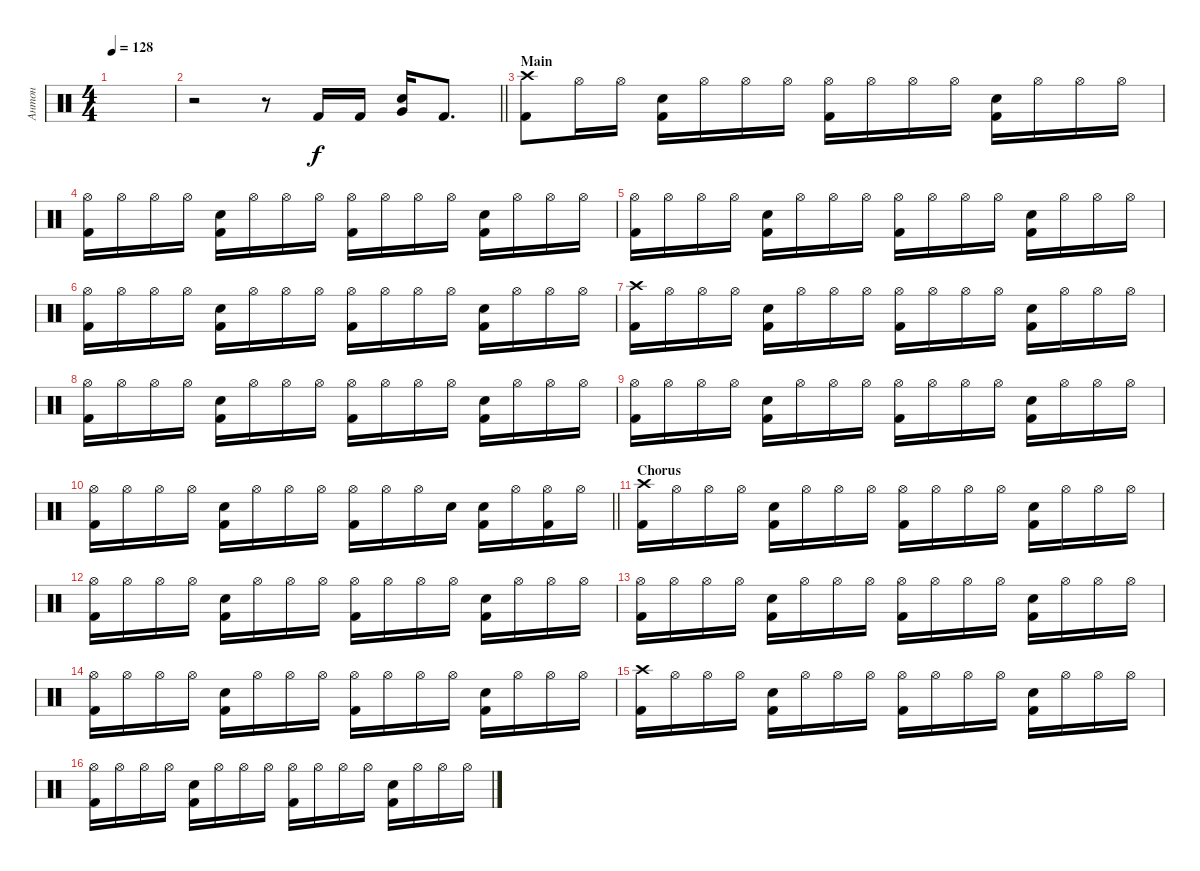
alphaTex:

\track ("Антон" "Антон") {instrument percussion}
\staff {score}
\articulation defaults
\ts (4 4)
\tempo 128
\clef neutral
\ks c
|
\barLineRight lightlight
r.2 r.8 "Kick (hit) 2".16 "Kick (hit) 2".16 ("Very Low Tom (hit)" "Snare (hit) 2").16 "Kick (hit) 2".8{d} |
\section ("" "Main")
("Crash high (hit)" "Kick (hit) 2").8 "Hi-Hat (open)".16 "Hi-Hat (open)".16 ("Snare (hit) 2" "Kick (hit) 2").16 "Hi-Hat (open)".16 "Hi-Hat (open)".16 "Hi-Hat (open)".16 ("Hi-Hat (open)" "Kick (hit) 2").16 "Hi-Hat (open)".16 "Hi-Hat (open)".16 "Hi-Hat (open)".16 ("Snare (hit) 2" "Kick (hit) 2").16 "Hi-Hat (open)".16 "Hi-Hat (open)".16 "Hi-Hat (open)".16 |
("Hi-Hat (open)" "Kick (hit) 2").16 "Hi-Hat (open)".16 "Hi-Hat (open)".16 "Hi-Hat (open)".16 ("Snare (hit) 2" "Kick (hit) 2").16 "Hi-Hat (open)".16 "Hi-Hat (open)".16 "Hi-Hat (open)".16 ("Hi-Hat (open)" "Kick (hit) 2").16 "Hi-Hat (open)".16 "Hi-Hat (open)".16 "Hi-Hat (open)".16 ("Snare (hit) 2" "Kick (hit) 2").16 "Hi-Hat (open)".16 "Hi-Hat (open)".16 "Hi-Hat (open)".16 |
("Hi-Hat (open)" "Kick (hit) 2").16 "Hi-Hat (open)".16 "Hi-Hat (open)".16 "Hi-Hat (open)".16 ("Snare (hit) 2" "Kick (hit) 2").16 "Hi-Hat (open)".16 "Hi-Hat (open)".16 "Hi-Hat (open)".16 ("Hi-Hat (open)" "Kick (hit) 2").16 "Hi-Hat (open)".16 "Hi-Hat (open)".16 "Hi-Hat (open)".16 ("Snare (hit) 2" "Kick (hit) 2").16 "Hi-Hat (open)".16 "Hi-Hat (open)".16 "Hi-Hat (open)".16 |
("Hi-Hat (open)" "Kick (hit) 2").16 "Hi-Hat (open)".16 "Hi-Hat (open)".16 "Hi-Hat (open)".16 ("Snare (hit) 2" "Kick (hit) 2").16 "Hi-Hat (open)".16 "Hi-Hat (open)".16 "Hi-Hat (open)".16 ("Hi-Hat (open)" "Kick (hit) 2").16 "Hi-Hat (open)".16 "Hi-Hat (open)".16 "Hi-Hat (open)".16 ("Snare (hit) 2" "Kick (hit) 2").16 "Hi-Hat (open)".16 "Hi-Hat (open)".16 "Hi-Hat (open)".16 |
("Crash high (hit)" "Kick (hit) 2").16 "Hi-Hat (open)".16 "Hi-Hat (open)".16 "Hi-Hat (open)".16 ("Snare (hit) 2" "Kick (hit) 2").16 "Hi-Hat (open)".16 "Hi-Hat (open)".16 "Hi-Hat (open)".16 ("Hi-Hat (open)" "Kick (hit) 2").16 "Hi-Hat (open)".16 "Hi-Hat (open)".16 "Hi-Hat (open)".16 ("Snare (hit) 2" "Kick (hit) 2").16 "Hi-Hat (open)".16 "Hi-Hat (open)".16 "Hi-Hat (open)".16 |
("Hi-Hat (open)" "Kick (hit) 2").16 "Hi-Hat (open)".16 "Hi-Hat (open)".16 "Hi-Hat (open)".16 ("Snare (hit) 2" "Kick (hit) 2").16 "Hi-Hat (open)".16 "Hi-Hat (open)".16 "Hi-Hat (open)".16 ("Hi-Hat (open)" "Kick (hit) 2").16 "Hi-Hat (open)".16 "Hi-Hat (open)".16 "Hi-Hat (open)".16 ("Snare (hit) 2" "Kick (hit) 2").16 "Hi-Hat (open)".16 "Hi-Hat (open)".16 "Hi-Hat (open)".16 |
("Hi-Hat (open)" "Kick (hit) 2").16 "Hi-Hat (open)".16 "Hi-Hat (open)".16 "Hi-Hat (open)".16 ("Snare (hit) 2" "Kick (hit) 2").16 "Hi-Hat (open)".16 "Hi-Hat (open)".16 "Hi-Hat (open)".16 ("Hi-Hat (open)" "Kick (hit) 2").16 "Hi-Hat (open)".16 "Hi-Hat (open)".16 "Hi-Hat (open)".16 ("Snare (hit) 2" "Kick (hit) 2").16 "Hi-Hat (open)".16 "Hi-Hat (open)".16 "Hi-Hat (open)".16 |
\barLineRight lightlight
("Hi-Hat (open)" "Kick (hit) 2").16 "Hi-Hat (open)".16 "Hi-Hat (open)".16 "Hi-Hat (open)".16 ("Snare (hit) 2" "Kick (hit) 2").16 "Hi-Hat (open)".16 "Hi-Hat (open)".16 "Hi-Hat (open)".16 ("Hi-Hat (open)" "Kick (hit) 2").16 "Hi-Hat (open)".16 "Hi-Hat (open)".16 "Snare (hit) 2".16 ("Snare (hit) 2" "Kick (hit) 2").16 "Hi-Hat (open)".16 ("Hi-Hat (open)" "Kick (hit) 2").16 "Hi-Hat (open)".16 |
\section ("" "Chorus")
("Crash high (hit)" "Kick (hit) 2").16 "Hi-Hat (open)".16 "Hi-Hat (open)".16 "Hi-Hat (open)".16 ("Snare (hit) 2" "Kick (hit) 2").16 "Hi-Hat (open)".16 "Hi-Hat (open)".16 "Hi-Hat (open)".16 ("Hi-Hat (open)" "Kick (hit) 2").16 "Hi-Hat (open)".16 "Hi-Hat (open)".16 "Hi-Hat (open)".16 ("Snare (hit) 2" "Kick (hit) 2").16 "Hi-Hat (open)".16 "Hi-Hat (open)".16 "Hi-Hat (open)".16 |
("Hi-Hat (open)" "Kick (hit) 2").16 "Hi-Hat (open)".16 "Hi-Hat (open)".16 "Hi-Hat (open)".16 ("Snare (hit) 2" "Kick (hit) 2").16 "Hi-Hat (open)".16 "Hi-Hat (open)".16 "Hi-Hat (open)".16 ("Hi-Hat (open)" "Kick (hit) 2").16 "Hi-Hat (open)".16 "Hi-Hat (open)".16 "Hi-Hat (open)".16 ("Snare (hit) 2" "Kick (hit) 2").16 "Hi-Hat (open)".16 "Hi-Hat (open)".16 "Hi-Hat (open)".16 |
("Hi-Hat (open)" "Kick (hit) 2").16 "Hi-Hat (open)".16 "Hi-Hat (open)".16 "Hi-Hat (open)".16 ("Snare (hit) 2" "Kick (hit) 2").16 "Hi-Hat (open)".16 "Hi-Hat (open)".16 "Hi-Hat (open)".16 ("Hi-Hat (open)" "Kick (hit) 2").16 "Hi-Hat (open)".16 "Hi-Hat (open)".16 "Hi-Hat (open)".16 ("Snare (hit) 2" "Kick (hit) 2").16 "Hi-Hat (open)".16 "Hi-Hat (open)".16 "Hi-Hat (open)".16 |
("Hi-Hat (open)" "Kick (hit) 2").16 "Hi-Hat (open)".16 "Hi-Hat (open)".16 "Hi-Hat (open)".16 ("Snare (hit) 2" "Kick (hit) 2").16 "Hi-Hat (open)".16 "Hi-Hat (open)".16 "Hi-Hat (open)".16 ("Hi-Hat (open)" "Kick (hit) 2").16 "Hi-Hat (open)".16 "Hi-Hat (open)".16 "Hi-Hat (open)".16 ("Snare (hit) 2" "Kick (hit) 2").16 "Hi-Hat (open)".16 "Hi-Hat (open)".16 "Hi-Hat (open)".16 |
("Crash high (hit)" "Kick (hit) 2").16 "Hi-Hat (open)".16 "Hi-Hat (open)".16 "Hi-Hat (open)".16 ("Snare (hit) 2" "Kick (hit) 2").16 "Hi-Hat (open)".16 "Hi-Hat (open)".16 "Hi-Hat (open)".16 ("Hi-Hat (open)" "Kick (hit) 2").16 "Hi-Hat (open)".16 "Hi-Hat (open)".16 "Hi-Hat (open)".16 ("Snare (hit) 2" "Kick (hit) 2").16 "Hi-Hat (open)".16 "Hi-Hat (open)".16 "Hi-Hat (open)".16 |
("Hi-Hat (open)" "Kick (hit) 2").16 "Hi-Hat (open)".16 "Hi-Hat (open)".16 "Hi-Hat (open)".16 ("Snare (hit) 2" "Kick (hit) 2").16 "Hi-Hat (open)".16 "Hi-Hat (open)".16 "Hi-Hat (open)".16 ("Hi-Hat (open)" "Kick (hit) 2").16 "Hi-Hat (open)".16 "Hi-Hat (open)".16 "Hi-Hat (open)".16 ("Snare (hit) 2" "Kick (hit) 2").16 "Hi-Hat (open)".16 "Hi-Hat (open)".16 "Hi-Hat (open)".16
